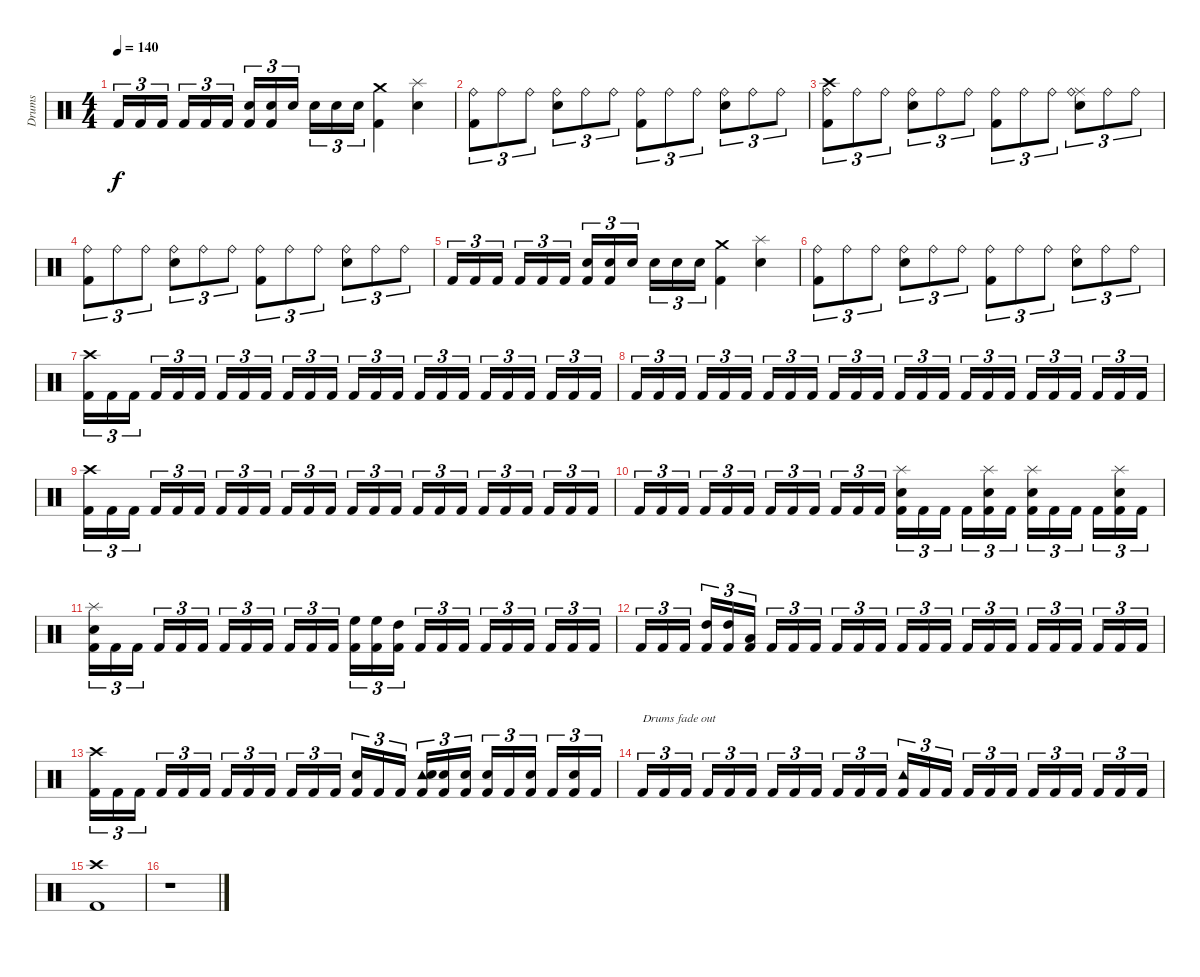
\track ("Drums" "Drums") {instrument percussion}
\staff {score}
\articulation defaults
\ts (4 4)
\tempo 140
\clef neutral
\ks c "Kick (hit) 2".16{tu (3 2) dy f} "Kick (hit) 2".16{tu (3 2)} "Kick (hit) 2".16{tu (3 2)} "Kick (hit) 2".16{tu (3 2)} "Kick (hit) 2".16{tu (3 2)} "Kick (hit) 2".16{tu (3 2)}
("Electric Snare (hit)" "Kick (hit) 2").16{tu (3 2)} ("Electric Snare (hit)" "Kick (hit) 2").16{tu (3 2)} "Electric Snare (hit)".16{tu (3 2)} "Electric Snare (hit)".16{tu (3 2)} "Electric Snare (hit)".16{tu (3 2)} "Electric Snare (hit)".16{tu (3 2)} ("Crash medium (hit)" "Kick (hit) 2").4 ("Splash (hit)" "Electric Snare (hit)").4 |
("Ride (bell)" "Kick (hit) 2").8{tu (3 2)} "Ride (bell)".8{tu (3 2)} "Ride (bell)".8{tu (3 2)} ("Ride (bell)" "Electric Snare (hit)").8{tu (3 2)} "Ride (bell)".8{tu (3 2)} "Ride (bell)".8{tu (3 2)} ("Ride (bell)" "Kick (hit) 2").8{tu (3 2)} "Ride (bell)".8{tu (3 2)} "Ride (bell)".8{tu (3 2)} ("Ride (bell)" "Electric Snare (hit)").8{tu (3 2)} "Ride (bell)".8{tu (3 2)} "Ride (bell)".8{tu (3 2)} |
("Crash high (hit)" "Ride (bell)" "Kick (hit) 2").8{tu (3 2)} "Ride (bell)".8{tu (3 2)} "Ride (bell)".8{tu (3 2)} ("Ride (bell)" "Electric Snare (hit)").8{tu (3 2)} "Ride (bell)".8{tu (3 2)} "Ride (bell)".8{tu (3 2)} ("Ride (bell)" "Kick (hit) 2").8{tu (3 2)} "Ride (bell)".8{tu (3 2)} "Ride (bell)".8{tu (3 2)} ("Ride (middle)" "Ride (bell)" "Electric Snare (hit)").8{tu (3 2)} "Ride (bell)".8{tu (3 2)} "Ride (bell)".8{tu (3 2)} |
("Ride (bell)" "Kick (hit) 2").8{tu (3 2)} "Ride (bell)".8{tu (3 2)} "Ride (bell)".8{tu (3 2)} ("Ride (bell)" "Electric Snare (hit)").8{tu (3 2)} "Ride (bell)".8{tu (3 2)} "Ride (bell)".8{tu (3 2)} ("Ride (bell)" "Kick (hit) 2").8{tu (3 2)} "Ride (bell)".8{tu (3 2)} "Ride (bell)".8{tu (3 2)} ("Ride (bell)" "Electric Snare (hit)").8{tu (3 2)} "Ride (bell)".8{tu (3 2)} "Ride (bell)".8{tu (3 2)} |
"Kick (hit) 2".16{tu (3 2)} "Kick (hit) 2".16{tu (3 2)} "Kick (hit) 2".16{tu (3 2)} "Kick (hit) 2".16{tu (3 2)} "Kick (hit) 2".16{tu (3 2)} "Kick (hit) 2".16{tu (3 2)} ("Electric Snare (hit)" "Kick (hit) 2").16{tu (3 2)} ("Electric Snare (hit)" "Kick (hit) 2").16{tu (3 2)} "Electric Snare (hit)".16{tu (3 2)} "Electric Snare (hit)".16{tu (3 2)} "Electric Snare (hit)".16{tu (3 2)} "Electric Snare (hit)".16{tu (3 2)} ("Crash medium (hit)" "Kick (hit) 2").4 ("Splash (hit)" "Electric Snare (hit)").4 |
("Ride (bell)" "Kick (hit) 2").8{tu (3 2)} "Ride (bell)".8{tu (3 2)} "Ride (bell)".8{tu (3 2)} ("Ride (bell)" "Electric Snare (hit)").8{tu (3 2)} "Ride (bell)".8{tu (3 2)} "Ride (bell)".8{tu (3 2)} ("Ride (bell)" "Kick (hit) 2").8{tu (3 2)} "Ride (bell)".8{tu (3 2)} "Ride (bell)".8{tu (3 2)} ("Ride (bell)" "Electric Snare (hit)").8{tu (3 2)} "Ride (bell)".8{tu (3 2)} "Ride (bell)".8{tu (3 2)} |
("Crash high (hit)" "Kick (hit) 2").16{tu (3 2)} "Kick (hit) 2".16{tu (3 2)} "Kick (hit) 2".16{tu (3 2)} "Kick (hit) 2".16{tu (3 2)} "Kick (hit) 2".16{tu (3 2)} "Kick (hit) 2".16{tu (3 2)} "Kick (hit) 2".16{tu (3 2)} "Kick (hit) 2".16{tu (3 2)} "Kick (hit) 2".16{tu (3 2)} "Kick (hit) 2".16{tu (3 2)} "Kick (hit) 2".16{tu (3 2)} "Kick (hit) 2".16{tu (3 2)} "Kick (hit) 2".16{tu (3 2)} "Kick (hit) 2".16{tu (3 2)} "Kick (hit) 2".16{tu (3 2)} "Kick (hit) 2".16{tu (3 2)} "Kick (hit) 2".16{tu (3 2)} "Kick (hit) 2".16{tu (3 2)} "Kick (hit) 2".16{tu (3 2)} "Kick (hit) 2".16{tu (3 2)} "Kick (hit) 2".16{tu (3 2)} "Kick (hit) 2".16{tu (3 2)} "Kick (hit) 2".16{tu (3 2)} "Kick (hit) 2".16{tu (3 2)} |
"Kick (hit) 2".16{tu (3 2)} "Kick (hit) 2".16{tu (3 2)} "Kick (hit) 2".16{tu (3 2)} "Kick (hit) 2".16{tu (3 2)} "Kick (hit) 2".16{tu (3 2)} "Kick (hit) 2".16{tu (3 2)} "Kick (hit) 2".16{tu (3 2)} "Kick (hit) 2".16{tu (3 2)} "Kick (hit) 2".16{tu (3 2)} "Kick (hit) 2".16{tu (3 2)} "Kick (hit) 2".16{tu (3 2)} "Kick (hit) 2".16{tu (3 2)} "Kick (hit) 2".16{tu (3 2)} "Kick (hit) 2".16{tu (3 2)} "Kick (hit) 2".16{tu (3 2)} "Kick (hit) 2".16{tu (3 2)} "Kick (hit) 2".16{tu (3 2)} "Kick (hit) 2".16{tu (3 2)} "Kick (hit) 2".16{tu (3 2)} "Kick (hit) 2".16{tu (3 2)} "Kick (hit) 2".16{tu (3 2)} "Kick (hit) 2".16{tu (3 2)} "Kick (hit) 2".16{tu (3 2)} "Kick (hit) 2".16{tu (3 2)} |
("Crash high (hit)" "Kick (hit) 2").16{tu (3 2)} "Kick (hit) 2".16{tu (3 2)} "Kick (hit) 2".16{tu (3 2)} "Kick (hit) 2".16{tu (3 2)} "Kick (hit) 2".16{tu (3 2)} "Kick (hit) 2".16{tu (3 2)} "Kick (hit) 2".16{tu (3 2)} "Kick (hit) 2".16{tu (3 2)} "Kick (hit) 2".16{tu (3 2)} "Kick (hit) 2".16{tu (3 2)} "Kick (hit) 2".16{tu (3 2)} "Kick (hit) 2".16{tu (3 2)} "Kick (hit) 2".16{tu (3 2)} "Kick (hit) 2".16{tu (3 2)} "Kick (hit) 2".16{tu (3 2)} "Kick (hit) 2".16{tu (3 2)} "Kick (hit) 2".16{tu (3 2)} "Kick (hit) 2".16{tu (3 2)} "Kick (hit) 2".16{tu (3 2)} "Kick (hit) 2".16{tu (3 2)} "Kick (hit) 2".16{tu (3 2)} "Kick (hit) 2".16{tu (3 2)} "Kick (hit) 2".16{tu (3 2)} "Kick (hit) 2".16{tu (3 2)} |
"Kick (hit) 2".16{tu (3 2)} "Kick (hit) 2".16{tu (3 2)} "Kick (hit) 2".16{tu (3 2)} "Kick (hit) 2".16{tu (3 2)} "Kick (hit) 2".16{tu (3 2)} "Kick (hit) 2".16{tu (3 2)} "Kick (hit) 2".16{tu (3 2)} "Kick (hit) 2".16{tu (3 2)} "Kick (hit) 2".16{tu (3 2)} "Kick (hit) 2".16{tu (3 2)} "Kick (hit) 2".16{tu (3 2)} "Kick (hit) 2".16{tu (3 2)} ("Splash (hit)" "Electric Snare (hit)" "Kick (hit) 2").16{tu (3 2)} "Kick (hit) 2".16{tu (3 2)} "Kick (hit) 2".16{tu (3 2)} "Kick (hit) 2".16{tu (3 2)} ("Splash (hit)" "Electric Snare (hit)" "Kick (hit) 2").16{tu (3 2)} "Kick (hit) 2".16{tu (3 2)} ("Splash (hit)" "Electric Snare (hit)" "Kick (hit) 2").16{tu (3 2)} "Kick (hit) 2".16{tu (3 2)} "Kick (hit) 2".16{tu (3 2)} "Kick (hit) 2".16{tu (3 2)} ("Splash (hit)" "Electric Snare (hit)" "Kick (hit) 2").16{tu (3 2)} "Kick (hit) 2".16{tu (3 2)} |
("Splash (hit)" "Electric Snare (hit)" "Kick (hit) 2").16{tu (3 2)} "Kick (hit) 2".16{tu (3 2)} "Kick (hit) 2".16{tu (3 2)} "Kick (hit) 2".16{tu (3 2)} "Kick (hit) 2".16{tu (3 2)} "Kick (hit) 2".16{tu (3 2)} "Kick (hit) 2".16{tu (3 2)} "Kick (hit) 2".16{tu (3 2)} "Kick (hit) 2".16{tu (3 2)} "Kick (hit) 2".16{tu (3 2)} "Kick (hit) 2".16{tu (3 2)} "Kick (hit) 2".16{tu (3 2)} ("High Floor Tom (hit)" "Kick (hit) 2").16{tu (3 2)} ("High Floor Tom (hit)" "Kick (hit) 2").16{tu (3 2)} ("High Tom (hit)" "Kick (hit) 2").16{tu (3 2)} "Kick (hit) 2".16{tu (3 2)} "Kick (hit) 2".16{tu (3 2)} "Kick (hit) 2".16{tu (3 2)} "Kick (hit) 2".16{tu (3 2)} "Kick (hit) 2".16{tu (3 2)} "Kick (hit) 2".16{tu (3 2)} "Kick (hit) 2".16{tu (3 2)} "Kick (hit) 2".16{tu (3 2)} "Kick (hit) 2".16{tu (3 2)} |
"Kick (hit) 2".16{tu (3 2)} "Kick (hit) 2".16{tu (3 2)} "Kick (hit) 2".16{tu (3 2)} ("High Tom (hit)" "Kick (hit) 2").16{tu (3 2)} ("High Tom (hit)" "Kick (hit) 2").16{tu (3 2)} ("Low Tom (hit)" "Kick (hit) 2").16{tu (3 2)} "Kick (hit) 2".16{tu (3 2)} "Kick (hit) 2".16{tu (3 2)} "Kick (hit) 2".16{tu (3 2)} "Kick (hit) 2".16{tu (3 2)} "Kick (hit) 2".16{tu (3 2)} "Kick (hit) 2".16{tu (3 2)} "Kick (hit) 2".16{tu (3 2)} "Kick (hit) 2".16{tu (3 2)} "Kick (hit) 2".16{tu (3 2)} "Kick (hit) 2".16{tu (3 2)} "Kick (hit) 2".16{tu (3 2)} "Kick (hit) 2".16{tu (3 2)} "Kick (hit) 2".16{tu (3 2)} "Kick (hit) 2".16{tu (3 2)} "Kick (hit) 2".16{tu (3 2)} "Kick (hit) 2".16{tu (3 2)} "Kick (hit) 2".16{tu (3 2)} "Kick (hit) 2".16{tu (3 2)} |
("Crash high (hit)" "Kick (hit) 2").16{tu (3 2)} "Kick (hit) 2".16{tu (3 2)} "Kick (hit) 2".16{tu (3 2)} "Kick (hit) 2".16{tu (3 2)} "Kick (hit) 2".16{tu (3 2)} "Kick (hit) 2".16{tu (3 2)} "Kick (hit) 2".16{tu (3 2)} "Kick (hit) 2".16{tu (3 2)} "Kick (hit) 2".16{tu (3 2)} "Kick (hit) 2".16{tu (3 2)} "Kick (hit) 2".16{tu (3 2)} "Kick (hit) 2".16{tu (3 2)} ("Electric Snare (hit)" "Kick (hit) 2").16{tu (3 2)} "Kick (hit) 2".16{tu (3 2)} "Kick (hit) 2".16{tu (3 2)} ("Tambourine (hit)" "Electric Snare (hit)" "Kick (hit) 2").16{tu (3 2)} ("Electric Snare (hit)" "Kick (hit) 2").16{tu (3 2)} ("Electric Snare (hit)" "Kick (hit) 2").16{tu (3 2)} ("Electric Snare (hit)" "Kick (hit) 2").16{tu (3 2)} "Kick (hit) 2".16{tu (3 2)} ("Electric Snare (hit)" "Kick (hit) 2").16{tu (3 2)} "Kick (hit) 2".16{tu (3 2)} ("Electric Snare (hit)" "Kick (hit) 2").16{tu (3 2)} "Kick (hit) 2".16{tu (3 2)} |
"Kick (hit) 2".16{tu (3 2) txt "Drums fade out" volume 6} "Kick (hit) 2".16{tu (3 2)} "Kick (hit) 2".16{tu (3 2)} "Kick (hit) 2".16{tu (3 2)} "Kick (hit) 2".16{tu (3 2)} "Kick (hit) 2".16{tu (3 2)} "Kick (hit) 2".16{tu (3 2)} "Kick (hit) 2".16{tu (3 2)} "Kick (hit) 2".16{tu (3 2)} "Kick (hit) 2".16{tu (3 2)} "Kick (hit) 2".16{tu (3 2)} "Kick (hit) 2".16{tu (3 2)} ("Tambourine (hit)" "Kick (hit) 2").16{tu (3 2)} "Kick (hit) 2".16{tu (3 2)} "Kick (hit) 2".16{tu (3 2)} "Kick (hit) 2".16{tu (3 2)} "Kick (hit) 2".16{tu (3 2)} "Kick (hit) 2".16{tu (3 2)} "Kick (hit) 2".16{tu (3 2)} "Kick (hit) 2".16{tu (3 2)} "Kick (hit) 2".16{tu (3 2)} "Kick (hit) 2".16{tu (3 2)} "Kick (hit) 2".16{tu (3 2)} "Kick (hit) 2".16{tu (3 2)} |
("Crash high (hit)" "Kick (hit) 2").1{volume 5} |
r.1{volume 1}
